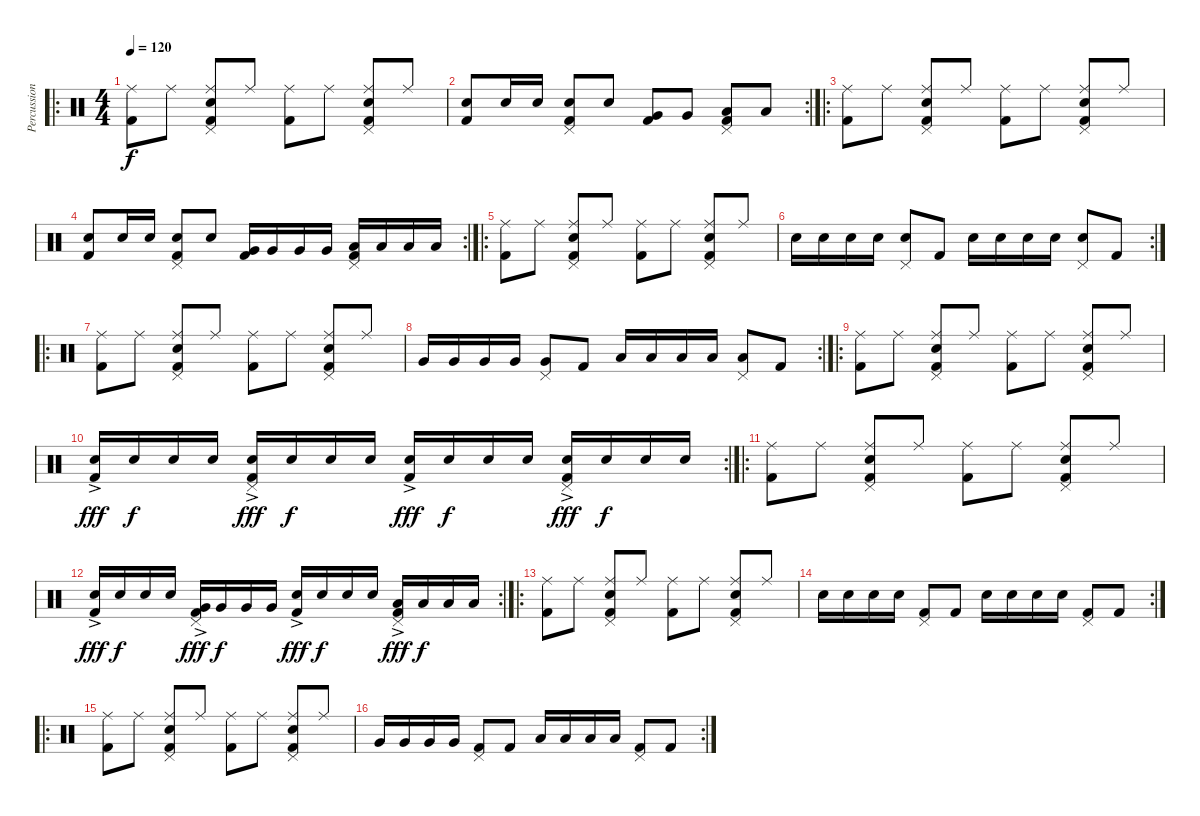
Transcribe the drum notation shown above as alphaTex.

\track ("Percussion" "Percussion") {instrument percussion}
\staff {score}
\articulation defaults
\ro
\ts (4 4)
\tempo 120
\clef neutral
\ks c
("Ride (middle)" "Kick (hit) 2").8{dy f} "Ride (middle)".8 ("Ride (middle)" "Electric Snare (hit)" "Kick (hit) 2" "Pedal Hi-Hat (hit)").8 "Ride (middle)".8 ("Ride (middle)" "Kick (hit) 2").8 "Ride (middle)".8 ("Ride (middle)" "Electric Snare (hit)" "Kick (hit) 2" "Pedal Hi-Hat (hit)").8 "Ride (middle)".8 |
\rc 2
("Electric Snare (hit)" "Kick (hit) 2").8 "Electric Snare (hit)".16 "Electric Snare (hit)".16 ("Electric Snare (hit)" "Kick (hit) 2" "Pedal Hi-Hat (hit)").8 "Electric Snare (hit)".8 ("Very Low Tom (hit)" "Kick (hit) 2").8 "Very Low Tom (hit)".8 ("Low Floor Tom (hit)" "Kick (hit) 2" "Pedal Hi-Hat (hit)").8 "Low Floor Tom (hit)".8 |
\ro
("Ride (middle)" "Kick (hit) 2").8 "Ride (middle)".8 ("Ride (middle)" "Electric Snare (hit)" "Kick (hit) 2" "Pedal Hi-Hat (hit)").8 "Ride (middle)".8 ("Ride (middle)" "Kick (hit) 2").8 "Ride (middle)".8 ("Ride (middle)" "Electric Snare (hit)" "Kick (hit) 2" "Pedal Hi-Hat (hit)").8 "Ride (middle)".8 |
\rc 2
("Electric Snare (hit)" "Kick (hit) 2").8 "Electric Snare (hit)".16 "Electric Snare (hit)".16 ("Electric Snare (hit)" "Kick (hit) 2" "Pedal Hi-Hat (hit)").8 "Electric Snare (hit)".8 ("Very Low Tom (hit)" "Kick (hit) 2").16 "Very Low Tom (hit)".16 "Very Low Tom (hit)".16 "Very Low Tom (hit)".16 ("Low Floor Tom (hit)" "Kick (hit) 2" "Pedal Hi-Hat (hit)").16 "Low Floor Tom (hit)".16 "Low Floor Tom (hit)".16 "Low Floor Tom (hit)".16 |
\ro
("Ride (middle)" "Kick (hit) 2").8 "Ride (middle)".8 ("Ride (middle)" "Electric Snare (hit)" "Kick (hit) 2" "Pedal Hi-Hat (hit)").8 "Ride (middle)".8 ("Ride (middle)" "Kick (hit) 2").8 "Ride (middle)".8 ("Ride (middle)" "Electric Snare (hit)" "Kick (hit) 2" "Pedal Hi-Hat (hit)").8 "Ride (middle)".8 |
\rc 2 "Electric Snare (hit)".16 "Electric Snare (hit)".16 "Electric Snare (hit)".16 "Electric Snare (hit)".16
("Electric Snare (hit)" "Pedal Hi-Hat (hit)").8 "Kick (hit) 2".8 "Electric Snare (hit)".16 "Electric Snare (hit)".16 "Electric Snare (hit)".16 "Electric Snare (hit)".16 ("Electric Snare (hit)" "Pedal Hi-Hat (hit)").8 "Kick (hit) 2".8 |
\ro
("Ride (middle)" "Kick (hit) 2").8 "Ride (middle)".8 ("Ride (middle)" "Electric Snare (hit)" "Kick (hit) 2" "Pedal Hi-Hat (hit)").8 "Ride (middle)".8 ("Ride (middle)" "Kick (hit) 2").8 "Ride (middle)".8 ("Ride (middle)" "Electric Snare (hit)" "Kick (hit) 2" "Pedal Hi-Hat (hit)").8 "Ride (middle)".8 |
\rc 2 "Very Low Tom (hit)".16 "Very Low Tom (hit)".16 "Very Low Tom (hit)".16 "Very Low Tom (hit)".16
("Very Low Tom (hit)" "Pedal Hi-Hat (hit)").8 "Kick (hit) 2".8 "Low Floor Tom (hit)".16 "Low Floor Tom (hit)".16 "Low Floor Tom (hit)".16 "Low Floor Tom (hit)".16 ("Low Floor Tom (hit)" "Pedal Hi-Hat (hit)").8 "Kick (hit) 2".8 |
\ro
("Ride (middle)" "Kick (hit) 2").8 "Ride (middle)".8 ("Ride (middle)" "Electric Snare (hit)" "Kick (hit) 2" "Pedal Hi-Hat (hit)").8 "Ride (middle)".8 ("Ride (middle)" "Kick (hit) 2").8 "Ride (middle)".8 ("Ride (middle)" "Electric Snare (hit)" "Kick (hit) 2" "Pedal Hi-Hat (hit)").8 "Ride (middle)".8 |
\rc 2
("Electric Snare (hit)"{ac} "Kick (hit) 2").16{dy fff} "Electric Snare (hit)".16{dy f} "Electric Snare (hit)".16 "Electric Snare (hit)".16 ("Electric Snare (hit)"{ac} "Kick (hit) 2" "Pedal Hi-Hat (hit)").16{dy fff} "Electric Snare (hit)".16{dy f} "Electric Snare (hit)".16 "Electric Snare (hit)".16 ("Electric Snare (hit)"{ac} "Kick (hit) 2").16{dy fff} "Electric Snare (hit)".16{dy f} "Electric Snare (hit)".16 "Electric Snare (hit)".16 ("Electric Snare (hit)"{ac} "Kick (hit) 2" "Pedal Hi-Hat (hit)").16{dy fff} "Electric Snare (hit)".16{dy f} "Electric Snare (hit)".16 "Electric Snare (hit)".16 |
\ro
("Ride (middle)" "Kick (hit) 2").8 "Ride (middle)".8 ("Ride (middle)" "Electric Snare (hit)" "Kick (hit) 2" "Pedal Hi-Hat (hit)").8 "Ride (middle)".8 ("Ride (middle)" "Kick (hit) 2").8 "Ride (middle)".8 ("Ride (middle)" "Electric Snare (hit)" "Kick (hit) 2" "Pedal Hi-Hat (hit)").8 "Ride (middle)".8 |
\rc 2
("Electric Snare (hit)"{ac} "Kick (hit) 2").16{dy fff} "Electric Snare (hit)".16{dy f} "Electric Snare (hit)".16 "Electric Snare (hit)".16 ("Very Low Tom (hit)"{ac} "Kick (hit) 2" "Pedal Hi-Hat (hit)").16{dy fff} "Very Low Tom (hit)".16{dy f} "Very Low Tom (hit)".16 "Very Low Tom (hit)".16 ("Electric Snare (hit)"{ac} "Kick (hit) 2").16{dy fff} "Electric Snare (hit)".16{dy f} "Electric Snare (hit)".16 "Electric Snare (hit)".16 ("Low Floor Tom (hit)"{ac} "Kick (hit) 2" "Pedal Hi-Hat (hit)").16{dy fff} "Low Floor Tom (hit)".16{dy f} "Low Floor Tom (hit)".16 "Low Floor Tom (hit)".16 |
\ro
("Ride (middle)" "Kick (hit) 2").8 "Ride (middle)".8 ("Ride (middle)" "Electric Snare (hit)" "Kick (hit) 2" "Pedal Hi-Hat (hit)").8 "Ride (middle)".8 ("Ride (middle)" "Kick (hit) 2").8 "Ride (middle)".8 ("Ride (middle)" "Electric Snare (hit)" "Kick (hit) 2" "Pedal Hi-Hat (hit)").8 "Ride (middle)".8 |
\rc 2 "Electric Snare (hit)".16 "Electric Snare (hit)".16 "Electric Snare (hit)".16 "Electric Snare (hit)".16
("Kick (hit) 2" "Pedal Hi-Hat (hit)").8 "Kick (hit) 2".8 "Electric Snare (hit)".16 "Electric Snare (hit)".16 "Electric Snare (hit)".16 "Electric Snare (hit)".16 ("Kick (hit) 2" "Pedal Hi-Hat (hit)").8 "Kick (hit) 2".8 |
\ro
("Ride (middle)" "Kick (hit) 2").8 "Ride (middle)".8 ("Ride (middle)" "Electric Snare (hit)" "Kick (hit) 2" "Pedal Hi-Hat (hit)").8 "Ride (middle)".8 ("Ride (middle)" "Kick (hit) 2").8 "Ride (middle)".8 ("Ride (middle)" "Electric Snare (hit)" "Kick (hit) 2" "Pedal Hi-Hat (hit)").8 "Ride (middle)".8 |
\rc 2 "Very Low Tom (hit)".16 "Very Low Tom (hit)".16 "Very Low Tom (hit)".16 "Very Low Tom (hit)".16
("Kick (hit) 2" "Pedal Hi-Hat (hit)").8 "Kick (hit) 2".8 "Low Floor Tom (hit)".16 "Low Floor Tom (hit)".16 "Low Floor Tom (hit)".16 "Low Floor Tom (hit)".16 ("Kick (hit) 2" "Pedal Hi-Hat (hit)").8 "Kick (hit) 2".8
